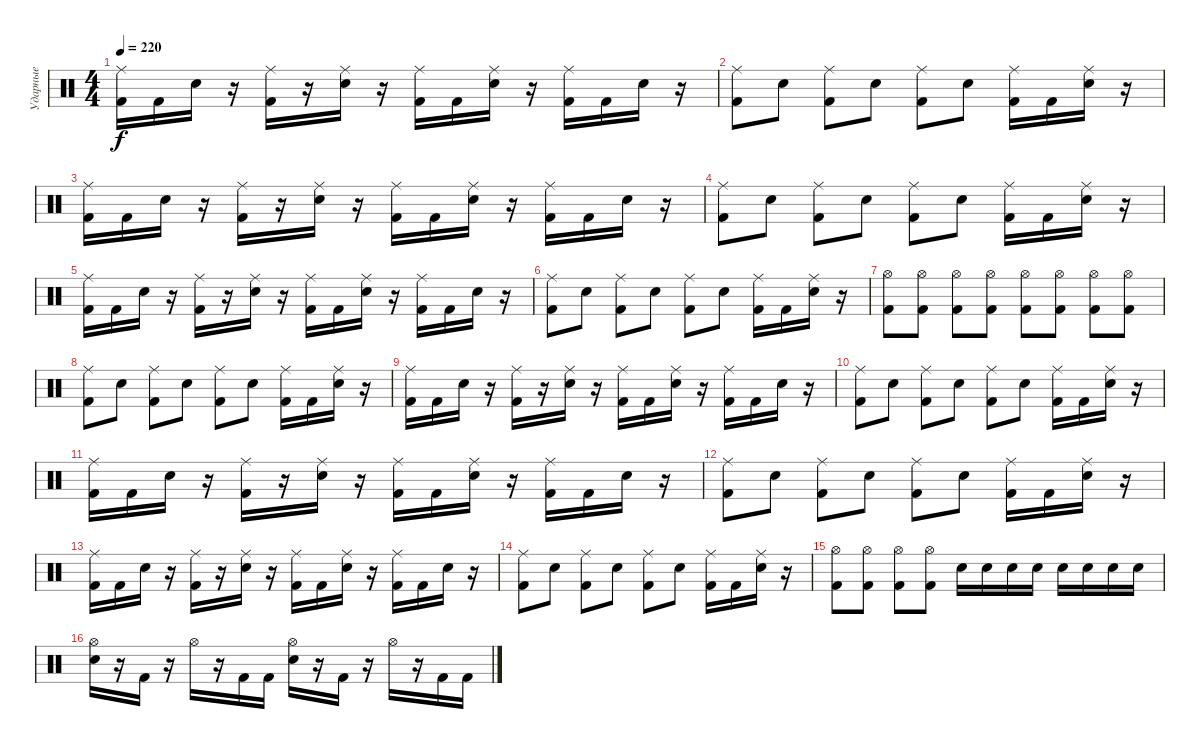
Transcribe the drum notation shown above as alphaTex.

\track ("Ударные" "Ударные") {instrument percussion}
\staff {score}
\articulation defaults
\ts (4 4)
\tempo 220
\clef neutral
\ks c
("Ride (middle)" "Kick (hit) 2").16{dy f} "Kick (hit) 2".16 "Electric Snare (hit)".16 r.16 ("Ride (middle)" "Kick (hit) 2").16 r.16 ("Ride (middle)" "Electric Snare (hit)").16 r.16 ("Kick (hit) 2" "Ride (middle)").16 "Kick (hit) 2".16 ("Ride (middle)" "Electric Snare (hit)").16 r.16 ("Kick (hit) 2" "Ride (middle)").16 "Kick (hit) 2".16 "Electric Snare (hit)".16 r.16 |
("Ride (middle)" "Kick (hit) 2").8 "Electric Snare (hit)".8 ("Kick (hit) 2" "Ride (middle)").8 "Electric Snare (hit)".8 ("Ride (middle)" "Kick (hit) 2").8 "Electric Snare (hit)".8 ("Ride (middle)" "Kick (hit) 2").16 "Kick (hit) 2".16 ("Ride (middle)" "Electric Snare (hit)").16 r.16 |
("Ride (middle)" "Kick (hit) 2").16 "Kick (hit) 2".16 "Electric Snare (hit)".16 r.16 ("Ride (middle)" "Kick (hit) 2").16 r.16 ("Ride (middle)" "Electric Snare (hit)").16 r.16 ("Kick (hit) 2" "Ride (middle)").16 "Kick (hit) 2".16 ("Ride (middle)" "Electric Snare (hit)").16 r.16 ("Kick (hit) 2" "Ride (middle)").16 "Kick (hit) 2".16 "Electric Snare (hit)".16 r.16 |
("Ride (middle)" "Kick (hit) 2").8 "Electric Snare (hit)".8 ("Kick (hit) 2" "Ride (middle)").8 "Electric Snare (hit)".8 ("Ride (middle)" "Kick (hit) 2").8 "Electric Snare (hit)".8 ("Ride (middle)" "Kick (hit) 2").16 "Kick (hit) 2".16 ("Ride (middle)" "Electric Snare (hit)").16 r.16 |
("Ride (middle)" "Kick (hit) 2").16 "Kick (hit) 2".16 "Electric Snare (hit)".16 r.16 ("Ride (middle)" "Kick (hit) 2").16 r.16 ("Ride (middle)" "Electric Snare (hit)").16 r.16 ("Kick (hit) 2" "Ride (middle)").16 "Kick (hit) 2".16 ("Ride (middle)" "Electric Snare (hit)").16 r.16 ("Kick (hit) 2" "Ride (middle)").16 "Kick (hit) 2".16 "Electric Snare (hit)".16 r.16 |
("Ride (middle)" "Kick (hit) 2").8 "Electric Snare (hit)".8 ("Kick (hit) 2" "Ride (middle)").8 "Electric Snare (hit)".8 ("Ride (middle)" "Kick (hit) 2").8 "Electric Snare (hit)".8 ("Ride (middle)" "Kick (hit) 2").16 "Kick (hit) 2".16 ("Ride (middle)" "Electric Snare (hit)").16 r.16 |
("Kick (hit) 2" "Hi-Hat (open)").8 ("Kick (hit) 2" "Hi-Hat (open)").8 ("Kick (hit) 2" "Hi-Hat (open)").8 ("Kick (hit) 2" "Hi-Hat (open)").8 ("Kick (hit) 2" "Hi-Hat (open)").8 ("Kick (hit) 2" "Hi-Hat (open)").8 ("Kick (hit) 2" "Hi-Hat (open)").8 ("Kick (hit) 2" "Hi-Hat (open)").8 |
("Ride (middle)" "Kick (hit) 2").8 "Electric Snare (hit)".8 ("Kick (hit) 2" "Ride (middle)").8 "Electric Snare (hit)".8 ("Ride (middle)" "Kick (hit) 2").8 "Electric Snare (hit)".8 ("Ride (middle)" "Kick (hit) 2").16 "Kick (hit) 2".16 ("Ride (middle)" "Electric Snare (hit)").16 r.16 |
("Ride (middle)" "Kick (hit) 2").16 "Kick (hit) 2".16 "Electric Snare (hit)".16 r.16 ("Ride (middle)" "Kick (hit) 2").16 r.16 ("Ride (middle)" "Electric Snare (hit)").16 r.16 ("Kick (hit) 2" "Ride (middle)").16 "Kick (hit) 2".16 ("Ride (middle)" "Electric Snare (hit)").16 r.16 ("Kick (hit) 2" "Ride (middle)").16 "Kick (hit) 2".16 "Electric Snare (hit)".16 r.16 |
("Ride (middle)" "Kick (hit) 2").8 "Electric Snare (hit)".8 ("Kick (hit) 2" "Ride (middle)").8 "Electric Snare (hit)".8 ("Ride (middle)" "Kick (hit) 2").8 "Electric Snare (hit)".8 ("Ride (middle)" "Kick (hit) 2").16 "Kick (hit) 2".16 ("Ride (middle)" "Electric Snare (hit)").16 r.16 |
("Ride (middle)" "Kick (hit) 2").16 "Kick (hit) 2".16 "Electric Snare (hit)".16 r.16 ("Ride (middle)" "Kick (hit) 2").16 r.16 ("Ride (middle)" "Electric Snare (hit)").16 r.16 ("Kick (hit) 2" "Ride (middle)").16 "Kick (hit) 2".16 ("Ride (middle)" "Electric Snare (hit)").16 r.16 ("Kick (hit) 2" "Ride (middle)").16 "Kick (hit) 2".16 "Electric Snare (hit)".16 r.16 |
("Ride (middle)" "Kick (hit) 2").8 "Electric Snare (hit)".8 ("Kick (hit) 2" "Ride (middle)").8 "Electric Snare (hit)".8 ("Ride (middle)" "Kick (hit) 2").8 "Electric Snare (hit)".8 ("Ride (middle)" "Kick (hit) 2").16 "Kick (hit) 2".16 ("Ride (middle)" "Electric Snare (hit)").16 r.16 |
("Ride (middle)" "Kick (hit) 2").16 "Kick (hit) 2".16 "Electric Snare (hit)".16 r.16 ("Ride (middle)" "Kick (hit) 2").16 r.16 ("Ride (middle)" "Electric Snare (hit)").16 r.16 ("Kick (hit) 2" "Ride (middle)").16 "Kick (hit) 2".16 ("Ride (middle)" "Electric Snare (hit)").16 r.16 ("Kick (hit) 2" "Ride (middle)").16 "Kick (hit) 2".16 "Electric Snare (hit)".16 r.16 |
("Ride (middle)" "Kick (hit) 2").8 "Electric Snare (hit)".8 ("Kick (hit) 2" "Ride (middle)").8 "Electric Snare (hit)".8 ("Ride (middle)" "Kick (hit) 2").8 "Electric Snare (hit)".8 ("Ride (middle)" "Kick (hit) 2").16 "Kick (hit) 2".16 ("Ride (middle)" "Electric Snare (hit)").16 r.16 |
("Kick (hit) 2" "Hi-Hat (open)").8 ("Kick (hit) 2" "Hi-Hat (open)").8 ("Kick (hit) 2" "Hi-Hat (open)").8 ("Kick (hit) 2" "Hi-Hat (open)").8 "Electric Snare (hit)".16 "Electric Snare (hit)".16 "Electric Snare (hit)".16 "Electric Snare (hit)".16 "Snare (hit) 2".16 "Snare (hit) 2".16 "Snare (hit) 2".16 "Snare (hit) 2".16 |
("Electric Snare (hit)" "Hi-Hat (open)").16 r.16 "Kick (hit) 2".16 r.16 "Hi-Hat (open)".16 r.16 "Kick (hit) 2".16 "Kick (hit) 2".16 ("Electric Snare (hit)" "Hi-Hat (open)").16 r.16 "Kick (hit) 2".16 r.16 "Hi-Hat (open)".16 r.16 "Kick (hit) 2".16 "Kick (hit) 2".16
